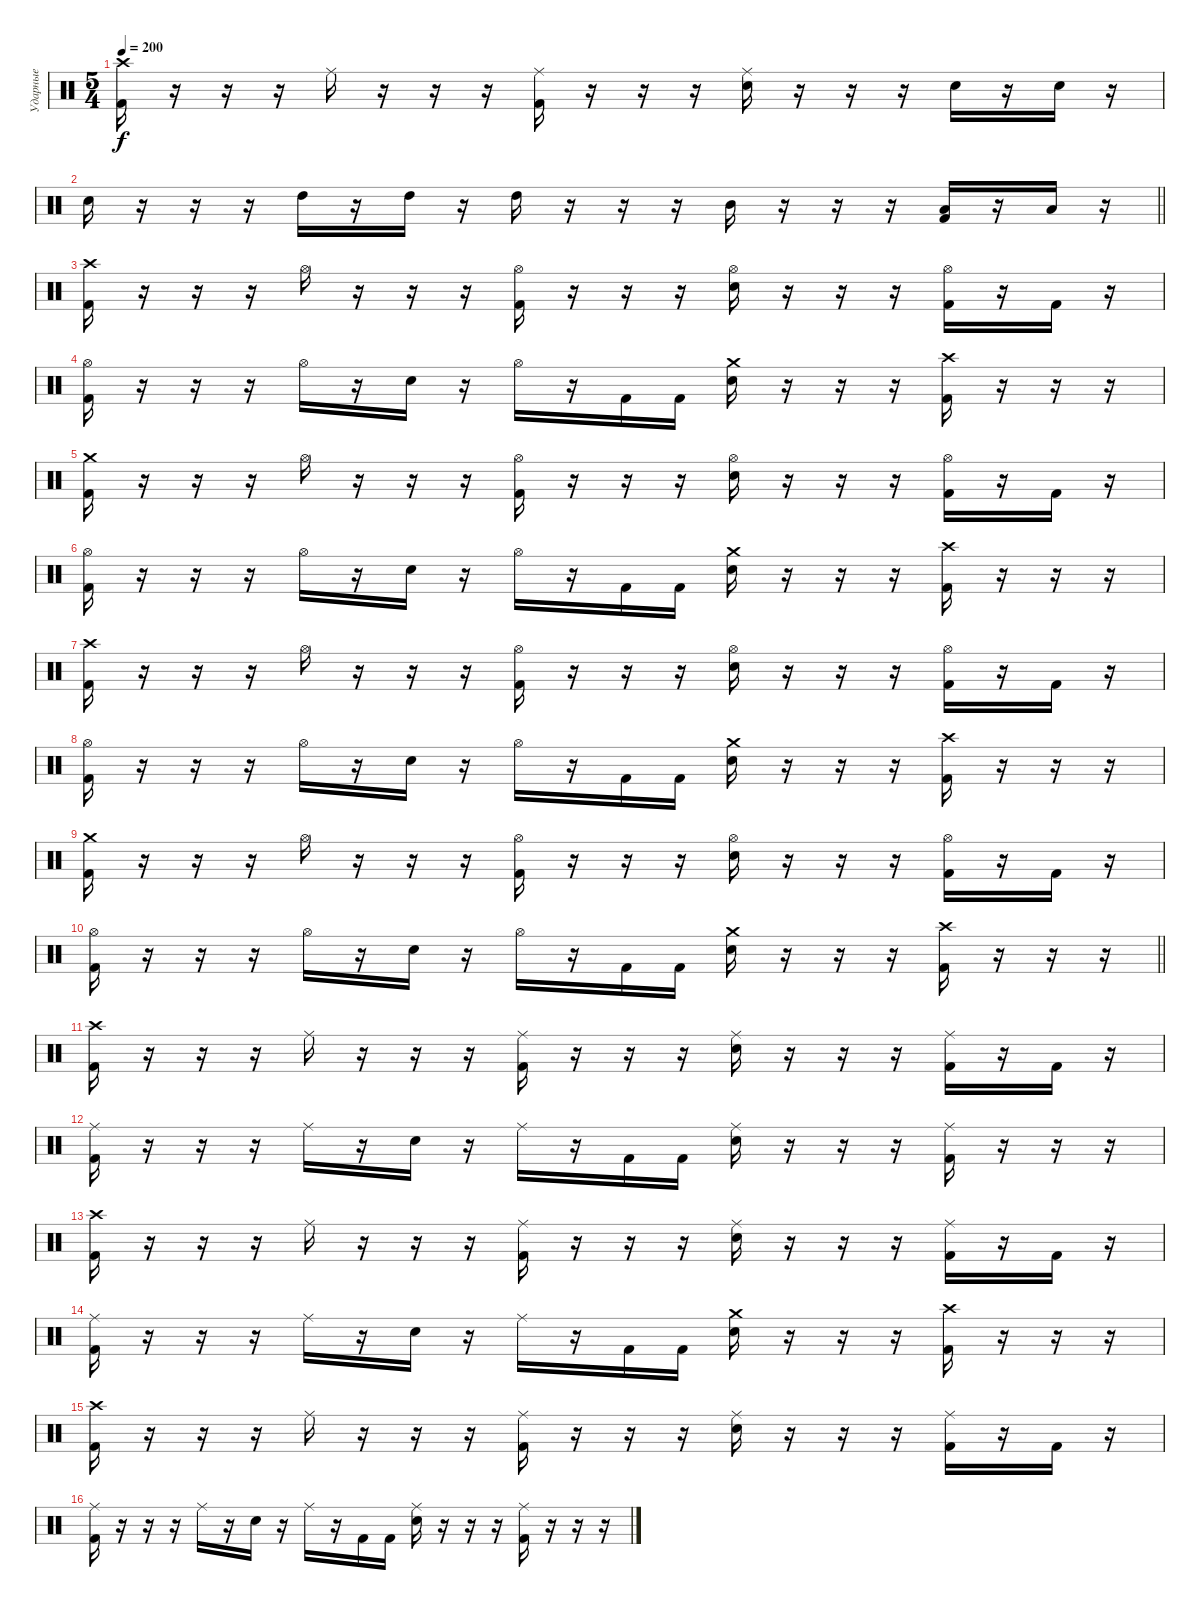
\track ("Ударные" "Ударные") {instrument percussion}
\staff {score}
\articulation defaults
\ts (5 4)
\tempo 200
\clef neutral
\ks c
("Crash high (hit)" "Kick (hit) 2").16{dy f} r.16 r.16 r.16 "Ride (middle)".16 r.16 r.16 r.16 ("Ride (middle)" "Kick (hit) 2").16 r.16 r.16 r.16 ("Ride (middle)" "Electric Snare (hit)").16 r.16 r.16 r.16 "Electric Snare (hit)".16 r.16 "Electric Snare (hit)".16 r.16 |
\barLineRight lightlight "Electric Snare (hit)".16
r.16 r.16 r.16 "High Tom (hit)".16 r.16 "High Tom (hit)".16 r.16 "High Tom (hit)".16 r.16 r.16 r.16 "Mid Tom (hit)".16 r.16 r.16 r.16 ("Low Tom (hit)" "Kick (hit) 2").16 r.16 "Low Tom (hit)".16 r.16 |
\section ("" "")
("Crash high (hit)" "Kick (hit) 2").16 r.16 r.16 r.16 "Hi-Hat (open)".16 r.16 r.16 r.16 ("Hi-Hat (open)" "Kick (hit) 2").16 r.16 r.16 r.16 ("Hi-Hat (open)" "Electric Snare (hit)").16 r.16 r.16 r.16 ("Hi-Hat (open)" "Kick (hit) 2").16 r.16 "Kick (hit) 2".16 r.16 |
("Hi-Hat (open)" "Kick (hit) 2").16 r.16 r.16 r.16 "Hi-Hat (open)".16 r.16 "Electric Snare (hit)".16 r.16 "Hi-Hat (open)".16 r.16 "Kick (hit) 2".16 "Kick (hit) 2".16 ("Crash medium (hit)" "Electric Snare (hit)").16 r.16 r.16 r.16 ("Crash high (hit)" "Kick (hit) 2").16 r.16 r.16 r.16 |
("Crash medium (hit)" "Kick (hit) 2").16 r.16 r.16 r.16 "Hi-Hat (open)".16 r.16 r.16 r.16 ("Hi-Hat (open)" "Kick (hit) 2").16 r.16 r.16 r.16 ("Hi-Hat (open)" "Electric Snare (hit)").16 r.16 r.16 r.16 ("Hi-Hat (open)" "Kick (hit) 2").16 r.16 "Kick (hit) 2".16 r.16 |
("Hi-Hat (open)" "Kick (hit) 2").16 r.16 r.16 r.16 "Hi-Hat (open)".16 r.16 "Electric Snare (hit)".16 r.16 "Hi-Hat (open)".16 r.16 "Kick (hit) 2".16 "Kick (hit) 2".16 ("Crash medium (hit)" "Electric Snare (hit)").16 r.16 r.16 r.16 ("Crash high (hit)" "Kick (hit) 2").16 r.16 r.16 r.16 |
("Crash high (hit)" "Kick (hit) 2").16 r.16 r.16 r.16 "Hi-Hat (open)".16 r.16 r.16 r.16 ("Hi-Hat (open)" "Kick (hit) 2").16 r.16 r.16 r.16 ("Hi-Hat (open)" "Electric Snare (hit)").16 r.16 r.16 r.16 ("Hi-Hat (open)" "Kick (hit) 2").16 r.16 "Kick (hit) 2".16 r.16 |
("Hi-Hat (open)" "Kick (hit) 2").16 r.16 r.16 r.16 "Hi-Hat (open)".16 r.16 "Electric Snare (hit)".16 r.16 "Hi-Hat (open)".16 r.16 "Kick (hit) 2".16 "Kick (hit) 2".16 ("Crash medium (hit)" "Electric Snare (hit)").16 r.16 r.16 r.16 ("Crash high (hit)" "Kick (hit) 2").16 r.16 r.16 r.16 |
("Crash medium (hit)" "Kick (hit) 2").16 r.16 r.16 r.16 "Hi-Hat (open)".16 r.16 r.16 r.16 ("Hi-Hat (open)" "Kick (hit) 2").16 r.16 r.16 r.16 ("Hi-Hat (open)" "Electric Snare (hit)").16 r.16 r.16 r.16 ("Hi-Hat (open)" "Kick (hit) 2").16 r.16 "Kick (hit) 2".16 r.16 |
\barLineRight lightlight
("Hi-Hat (open)" "Kick (hit) 2").16 r.16 r.16 r.16 "Hi-Hat (open)".16 r.16 "Electric Snare (hit)".16 r.16 "Hi-Hat (open)".16 r.16 "Kick (hit) 2".16 "Kick (hit) 2".16 ("Crash medium (hit)" "Electric Snare (hit)").16 r.16 r.16 r.16 ("Crash high (hit)" "Kick (hit) 2").16 r.16 r.16 r.16 |
\section ("" "")
("Crash high (hit)" "Kick (hit) 2").16 r.16 r.16 r.16 "Ride (middle)".16 r.16 r.16 r.16 ("Ride (middle)" "Kick (hit) 2").16 r.16 r.16 r.16 ("Ride (middle)" "Electric Snare (hit)").16 r.16 r.16 r.16 ("Ride (middle)" "Kick (hit) 2").16 r.16 "Kick (hit) 2".16 r.16 |
("Ride (middle)" "Kick (hit) 2").16 r.16 r.16 r.16 "Ride (middle)".16 r.16 "Electric Snare (hit)".16 r.16 "Ride (middle)".16 r.16 "Kick (hit) 2".16 "Kick (hit) 2".16 ("Ride (middle)" "Electric Snare (hit)").16 r.16 r.16 r.16 ("Ride (middle)" "Kick (hit) 2").16 r.16 r.16 r.16 |
("Crash high (hit)" "Kick (hit) 2").16 r.16 r.16 r.16 "Ride (middle)".16 r.16 r.16 r.16 ("Ride (middle)" "Kick (hit) 2").16 r.16 r.16 r.16 ("Ride (middle)" "Electric Snare (hit)").16 r.16 r.16 r.16 ("Ride (middle)" "Kick (hit) 2").16 r.16 "Kick (hit) 2".16 r.16 |
("Ride (middle)" "Kick (hit) 2").16 r.16 r.16 r.16 "Ride (middle)".16 r.16 "Electric Snare (hit)".16 r.16 "Ride (middle)".16 r.16 "Kick (hit) 2".16 "Kick (hit) 2".16 ("Crash medium (hit)" "Electric Snare (hit)").16 r.16 r.16 r.16 ("Crash high (hit)" "Kick (hit) 2").16 r.16 r.16 r.16 |
("Crash high (hit)" "Kick (hit) 2").16 r.16 r.16 r.16 "Ride (middle)".16 r.16 r.16 r.16 ("Ride (middle)" "Kick (hit) 2").16 r.16 r.16 r.16 ("Ride (middle)" "Electric Snare (hit)").16 r.16 r.16 r.16 ("Ride (middle)" "Kick (hit) 2").16 r.16 "Kick (hit) 2".16 r.16 |
("Ride (middle)" "Kick (hit) 2").16 r.16 r.16 r.16 "Ride (middle)".16 r.16 "Electric Snare (hit)".16 r.16 "Ride (middle)".16 r.16 "Kick (hit) 2".16 "Kick (hit) 2".16 ("Ride (middle)" "Electric Snare (hit)").16 r.16 r.16 r.16 ("Ride (middle)" "Kick (hit) 2").16 r.16 r.16 r.16
